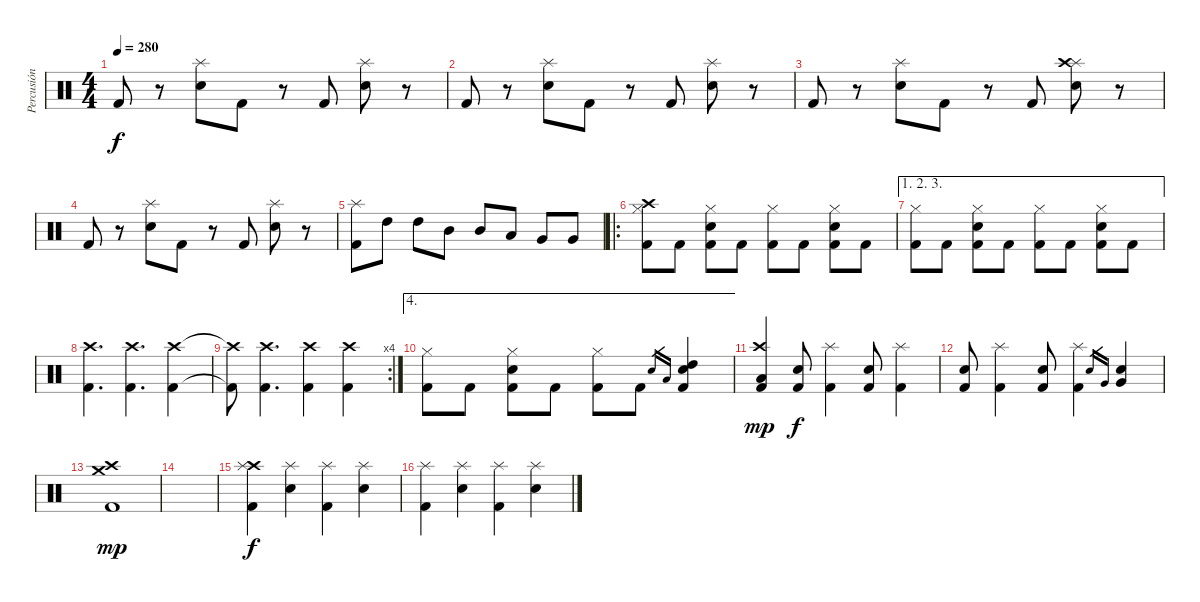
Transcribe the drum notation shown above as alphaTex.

\track ("Percusión" "Percusión") {instrument percussion}
\staff {score}
\articulation defaults
\ts (4 4)
\tempo 280
\clef neutral
\ks c "Kick (hit) 2".8{dy f}
r.8 ("Snare (hit) 2" "Splash (hit)").8 "Kick (hit) 2".8 r.8 "Kick (hit) 2".8 ("Snare (hit) 2" "Splash (hit)").8 r.8 |
"Kick (hit) 2".8 r.8 ("Snare (hit) 2" "Splash (hit)").8 "Kick (hit) 2".8 r.8 "Kick (hit) 2".8 ("Snare (hit) 2" "Splash (hit)").8 r.8 |
"Kick (hit) 2".8 r.8 ("Snare (hit) 2" "Splash (hit)").8 "Kick (hit) 2".8 r.8 "Kick (hit) 2".8 ("Snare (hit) 2" "Splash (hit)" "Crash high (hit)").8 r.8 |
"Kick (hit) 2".8 r.8 ("Snare (hit) 2" "Splash (hit)").8 "Kick (hit) 2".8 r.8 "Kick (hit) 2".8 ("Snare (hit) 2" "Splash (hit)").8 r.8 |
("Splash (hit)" "Kick (hit) 2").8 "High Tom (hit)".8 "High Tom (hit)".8 "Mid Tom (hit)".8 "Mid Tom (hit)".8 "Low Tom (hit)".8 "Very Low Tom (hit)".8 "Very Low Tom (hit)".8 |
\ro
("Crash high (hit)" "Hi-Hat (closed)" "Kick (hit) 2").8 "Kick (hit) 2".8 ("Snare (hit) 2" "Hi-Hat (closed)" "Kick (hit) 2").8 "Kick (hit) 2".8 ("Hi-Hat (closed)" "Kick (hit) 2").8 "Kick (hit) 2".8 ("Snare (hit) 2" "Hi-Hat (closed)" "Kick (hit) 2").8 "Kick (hit) 2".8 |
\ae (1 2 3)
("Hi-Hat (closed)" "Kick (hit) 2").8 "Kick (hit) 2".8 ("Snare (hit) 2" "Hi-Hat (closed)" "Kick (hit) 2").8 "Kick (hit) 2".8 ("Hi-Hat (closed)" "Kick (hit) 2").8 "Kick (hit) 2".8 ("Snare (hit) 2" "Hi-Hat (closed)" "Kick (hit) 2").8 "Kick (hit) 2".8 |
("Crash high (hit)" "Kick (hit) 2").4{d} ("Crash high (hit)" "Kick (hit) 2").4{d} ("Crash high (hit)" "Kick (hit) 2").4 |
\rc 4
("Crash high (hit)"{t} "Kick (hit) 2"{t}).8 ("Crash high (hit)" "Kick (hit) 2").4{d} ("Crash high (hit)" "Kick (hit) 2").4 ("Crash high (hit)" "Kick (hit) 2").4 |
\ae 4
("Hi-Hat (closed)" "Kick (hit) 2").8 "Kick (hit) 2".8 ("Snare (hit) 2" "Hi-Hat (closed)" "Kick (hit) 2").8 "Kick (hit) 2".8 ("Hi-Hat (closed)" "Kick (hit) 2").8 "Kick (hit) 2".8 "Snare (hit) 2".16{gr} "Low Tom (hit)".16{gr} ("Snare (hit) 2" "High Tom (hit)" "Kick (hit) 2").4 |
("Low Tom (hit)" "Crash high (hit)" "Kick (hit) 2").4{dy mp} ("Snare (hit) 2" "Kick (hit) 2").8{dy f} ("Splash (hit)" "Kick (hit) 2").4 ("Snare (hit) 2" "Kick (hit) 2").8 ("Splash (hit)" "Kick (hit) 2").4 |
("Snare (hit) 2" "Kick (hit) 2").8 ("Splash (hit)" "Kick (hit) 2").4 ("Snare (hit) 2" "Kick (hit) 2").8 ("Splash (hit)" "Kick (hit) 2").4 "Snare (hit) 2".16{gr} "Very Low Tom (hit)".16{gr} ("Snare (hit) 2" "Very Low Tom (hit)").4 |
("Crash high (hit)" "Crash medium (hit)" "Kick (hit) 2").1{dy mp} |
|
("Crash high (hit)" "Splash (hit)" "Kick (hit) 2").4{dy f} ("Snare (hit) 2" "Splash (hit)").4 ("Splash (hit)" "Kick (hit) 2").4 ("Snare (hit) 2" "Splash (hit)").4 |
("Splash (hit)" "Kick (hit) 2").4 ("Snare (hit) 2" "Splash (hit)").4 ("Splash (hit)" "Kick (hit) 2").4 ("Snare (hit) 2" "Splash (hit)").4
